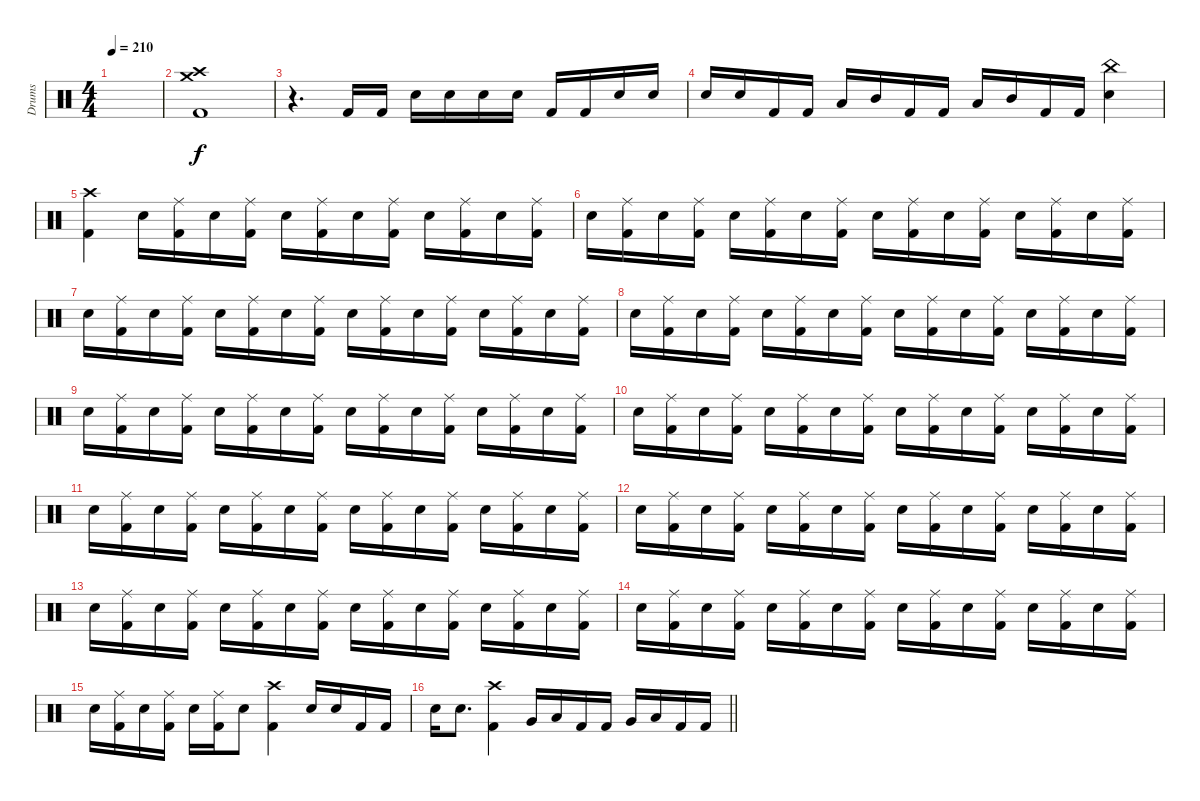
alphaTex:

\track ("Drums" "Drums") {instrument percussion}
\staff {score}
\articulation defaults
\ts (4 4)
\tempo 210
\clef neutral
\ks c
|
("Crash medium (hit)" "Crash high (hit)" "Kick (hit) 2").1 |
r.4{d} "Kick (hit) 2".16 "Kick (hit) 2".16 "Snare (hit) 2".16 "Snare (hit) 2".16 "Snare (hit) 2".16 "Snare (hit) 2".16 "Kick (hit) 2".16 "Kick (hit) 2".16 "Snare (hit) 2".16 "Snare (hit) 2".16 |
"Snare (hit) 2".16 "Snare (hit) 2".16 "Kick (hit) 2".16 "Kick (hit) 2".16 "Low Tom (hit)".16 "Mid Tom (hit)".16 "Kick (hit) 2".16 "Kick (hit) 2".16 "Low Tom (hit)".16 "Mid Tom (hit)".16 "Kick (hit) 2".16 "Kick (hit) 2".16 ("China (hit)" "Snare (hit) 2").4 |
("Crash high (hit)" "Kick (hit) 2").4 "Snare (hit) 2".16 ("Ride (middle)" "Kick (hit) 2").16 "Snare (hit) 2".16 ("Ride (middle)" "Kick (hit) 2").16 "Snare (hit) 2".16 ("Ride (middle)" "Kick (hit) 2").16 "Snare (hit) 2".16 ("Ride (middle)" "Kick (hit) 2").16 "Snare (hit) 2".16 ("Ride (middle)" "Kick (hit) 2").16 "Snare (hit) 2".16 ("Ride (middle)" "Kick (hit) 2").16 |
"Snare (hit) 2".16 ("Ride (middle)" "Kick (hit) 2").16 "Snare (hit) 2".16 ("Ride (middle)" "Kick (hit) 2").16 "Snare (hit) 2".16 ("Ride (middle)" "Kick (hit) 2").16 "Snare (hit) 2".16 ("Ride (middle)" "Kick (hit) 2").16 "Snare (hit) 2".16 ("Ride (middle)" "Kick (hit) 2").16 "Snare (hit) 2".16 ("Ride (middle)" "Kick (hit) 2").16 "Snare (hit) 2".16 ("Ride (middle)" "Kick (hit) 2").16 "Snare (hit) 2".16 ("Ride (middle)" "Kick (hit) 2").16 |
"Snare (hit) 2".16 ("Ride (middle)" "Kick (hit) 2").16 "Snare (hit) 2".16 ("Ride (middle)" "Kick (hit) 2").16 "Snare (hit) 2".16 ("Ride (middle)" "Kick (hit) 2").16 "Snare (hit) 2".16 ("Ride (middle)" "Kick (hit) 2").16 "Snare (hit) 2".16 ("Ride (middle)" "Kick (hit) 2").16 "Snare (hit) 2".16 ("Ride (middle)" "Kick (hit) 2").16 "Snare (hit) 2".16 ("Ride (middle)" "Kick (hit) 2").16 "Snare (hit) 2".16 ("Ride (middle)" "Kick (hit) 2").16 |
"Snare (hit) 2".16 ("Ride (middle)" "Kick (hit) 2").16 "Snare (hit) 2".16 ("Ride (middle)" "Kick (hit) 2").16 "Snare (hit) 2".16 ("Ride (middle)" "Kick (hit) 2").16 "Snare (hit) 2".16 ("Ride (middle)" "Kick (hit) 2").16 "Snare (hit) 2".16 ("Ride (middle)" "Kick (hit) 2").16 "Snare (hit) 2".16 ("Ride (middle)" "Kick (hit) 2").16 "Snare (hit) 2".16 ("Ride (middle)" "Kick (hit) 2").16 "Snare (hit) 2".16 ("Ride (middle)" "Kick (hit) 2").16 |
"Snare (hit) 2".16 ("Ride (middle)" "Kick (hit) 2").16 "Snare (hit) 2".16 ("Ride (middle)" "Kick (hit) 2").16 "Snare (hit) 2".16 ("Ride (middle)" "Kick (hit) 2").16 "Snare (hit) 2".16 ("Ride (middle)" "Kick (hit) 2").16 "Snare (hit) 2".16 ("Ride (middle)" "Kick (hit) 2").16 "Snare (hit) 2".16 ("Ride (middle)" "Kick (hit) 2").16 "Snare (hit) 2".16 ("Ride (middle)" "Kick (hit) 2").16 "Snare (hit) 2".16 ("Ride (middle)" "Kick (hit) 2").16 |
"Snare (hit) 2".16 ("Ride (middle)" "Kick (hit) 2").16 "Snare (hit) 2".16 ("Ride (middle)" "Kick (hit) 2").16 "Snare (hit) 2".16 ("Ride (middle)" "Kick (hit) 2").16 "Snare (hit) 2".16 ("Ride (middle)" "Kick (hit) 2").16 "Snare (hit) 2".16 ("Ride (middle)" "Kick (hit) 2").16 "Snare (hit) 2".16 ("Ride (middle)" "Kick (hit) 2").16 "Snare (hit) 2".16 ("Ride (middle)" "Kick (hit) 2").16 "Snare (hit) 2".16 ("Ride (middle)" "Kick (hit) 2").16 |
"Snare (hit) 2".16 ("Ride (middle)" "Kick (hit) 2").16 "Snare (hit) 2".16 ("Ride (middle)" "Kick (hit) 2").16 "Snare (hit) 2".16 ("Ride (middle)" "Kick (hit) 2").16 "Snare (hit) 2".16 ("Ride (middle)" "Kick (hit) 2").16 "Snare (hit) 2".16 ("Ride (middle)" "Kick (hit) 2").16 "Snare (hit) 2".16 ("Ride (middle)" "Kick (hit) 2").16 "Snare (hit) 2".16 ("Ride (middle)" "Kick (hit) 2").16 "Snare (hit) 2".16 ("Ride (middle)" "Kick (hit) 2").16 |
"Snare (hit) 2".16 ("Ride (middle)" "Kick (hit) 2").16 "Snare (hit) 2".16 ("Ride (middle)" "Kick (hit) 2").16 "Snare (hit) 2".16 ("Ride (middle)" "Kick (hit) 2").16 "Snare (hit) 2".16 ("Ride (middle)" "Kick (hit) 2").16 "Snare (hit) 2".16 ("Ride (middle)" "Kick (hit) 2").16 "Snare (hit) 2".16 ("Ride (middle)" "Kick (hit) 2").16 "Snare (hit) 2".16 ("Ride (middle)" "Kick (hit) 2").16 "Snare (hit) 2".16 ("Ride (middle)" "Kick (hit) 2").16 |
"Snare (hit) 2".16 ("Ride (middle)" "Kick (hit) 2").16 "Snare (hit) 2".16 ("Ride (middle)" "Kick (hit) 2").16 "Snare (hit) 2".16 ("Ride (middle)" "Kick (hit) 2").16 "Snare (hit) 2".16 ("Ride (middle)" "Kick (hit) 2").16 "Snare (hit) 2".16 ("Ride (middle)" "Kick (hit) 2").16 "Snare (hit) 2".16 ("Ride (middle)" "Kick (hit) 2").16 "Snare (hit) 2".16 ("Ride (middle)" "Kick (hit) 2").16 "Snare (hit) 2".16 ("Ride (middle)" "Kick (hit) 2").16 |
"Snare (hit) 2".16 ("Ride (middle)" "Kick (hit) 2").16 "Snare (hit) 2".16 ("Ride (middle)" "Kick (hit) 2").16 "Snare (hit) 2".16 ("Ride (middle)" "Kick (hit) 2").16 "Snare (hit) 2".16 ("Ride (middle)" "Kick (hit) 2").16 "Snare (hit) 2".16 ("Ride (middle)" "Kick (hit) 2").16 "Snare (hit) 2".16 ("Ride (middle)" "Kick (hit) 2").16 "Snare (hit) 2".16 ("Ride (middle)" "Kick (hit) 2").16 "Snare (hit) 2".16 ("Ride (middle)" "Kick (hit) 2").16 |
"Snare (hit) 2".16 ("Ride (middle)" "Kick (hit) 2").16 "Snare (hit) 2".16 ("Ride (middle)" "Kick (hit) 2").16 "Snare (hit) 2".16 ("Ride (middle)" "Kick (hit) 2").16 "Snare (hit) 2".8 ("Crash high (hit)" "Kick (hit) 2").4 "Snare (hit) 2".16 "Snare (hit) 2".16 "Kick (hit) 2".16 "Kick (hit) 2".16 |
\barLineRight lightlight "Snare (hit) 2".16 "Snare (hit) 2".8{d}
("Crash high (hit)" "Kick (hit) 2").4 "Very Low Tom (hit)".16 "Low Tom (hit)".16 "Kick (hit) 2".16 "Kick (hit) 2".16 "Very Low Tom (hit)".16 "Low Tom (hit)".16 "Kick (hit) 2".16 "Kick (hit) 2".16
